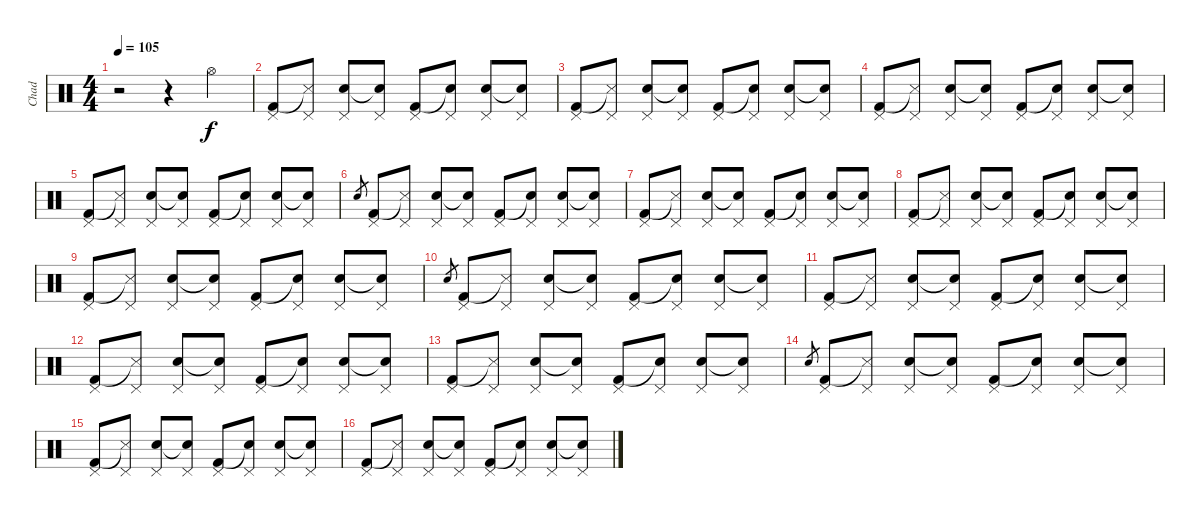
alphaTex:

\track ("Chad" "Chad") {instrument percussion}
\staff {score}
\articulation defaults
\ts (4 4)
\tempo 105
\clef neutral
\ks c
r.2{dy f} r.4 "Hi-Hat (open)".4 |
("Pedal Hi-Hat (hit)" "Kick (hit) 2").8 ("Pedal Hi-Hat (hit)" "Snare (side stick) 3"{t}).8 ("Pedal Hi-Hat (hit)" "Electric Snare (hit)").8 ("Pedal Hi-Hat (hit)" "Snare (hit)"{t}).8 ("Pedal Hi-Hat (hit)" "Kick (hit) 2").8 ("Pedal Hi-Hat (hit)" "Snare (hit)"{t}).8 ("Pedal Hi-Hat (hit)" "Electric Snare (hit)").8 ("Pedal Hi-Hat (hit)" "Snare (hit)"{t}).8 |
("Pedal Hi-Hat (hit)" "Kick (hit) 2").8 ("Pedal Hi-Hat (hit)" "Snare (side stick) 3"{t}).8 ("Pedal Hi-Hat (hit)" "Electric Snare (hit)").8 ("Pedal Hi-Hat (hit)" "Snare (hit)"{t}).8 ("Pedal Hi-Hat (hit)" "Kick (hit) 2").8 ("Pedal Hi-Hat (hit)" "Snare (hit)"{t}).8 ("Pedal Hi-Hat (hit)" "Electric Snare (hit)").8 ("Pedal Hi-Hat (hit)" "Snare (hit)"{t}).8 |
("Pedal Hi-Hat (hit)" "Kick (hit) 2").8 ("Pedal Hi-Hat (hit)" "Snare (side stick) 3"{t}).8 ("Pedal Hi-Hat (hit)" "Electric Snare (hit)").8 ("Pedal Hi-Hat (hit)" "Snare (hit)"{t}).8 ("Pedal Hi-Hat (hit)" "Kick (hit) 2").8 ("Pedal Hi-Hat (hit)" "Snare (hit)"{t}).8 ("Pedal Hi-Hat (hit)" "Electric Snare (hit)").8 ("Pedal Hi-Hat (hit)" "Snare (hit)"{t}).8 |
("Pedal Hi-Hat (hit)" "Kick (hit) 2").8 ("Pedal Hi-Hat (hit)" "Snare (side stick) 3"{t}).8 ("Pedal Hi-Hat (hit)" "Electric Snare (hit)").8 ("Pedal Hi-Hat (hit)" "Snare (hit)"{t}).8 ("Pedal Hi-Hat (hit)" "Kick (hit) 2").8 ("Pedal Hi-Hat (hit)" "Snare (hit)"{t}).8 ("Pedal Hi-Hat (hit)" "Electric Snare (hit)").8 ("Pedal Hi-Hat (hit)" "Snare (hit)"{t}).8 |
"Electric Snare (hit)".8{gr} ("Pedal Hi-Hat (hit)" "Kick (hit) 2").8 ("Pedal Hi-Hat (hit)" "Snare (side stick) 3"{t}).8 ("Pedal Hi-Hat (hit)" "Electric Snare (hit)").8 ("Pedal Hi-Hat (hit)" "Snare (hit)"{t}).8 ("Pedal Hi-Hat (hit)" "Kick (hit) 2").8 ("Pedal Hi-Hat (hit)" "Snare (hit)"{t}).8 ("Pedal Hi-Hat (hit)" "Electric Snare (hit)").8 ("Pedal Hi-Hat (hit)" "Snare (hit)"{t}).8 |
("Pedal Hi-Hat (hit)" "Kick (hit) 2").8 ("Pedal Hi-Hat (hit)" "Snare (side stick) 3"{t}).8 ("Pedal Hi-Hat (hit)" "Electric Snare (hit)").8 ("Pedal Hi-Hat (hit)" "Snare (hit)"{t}).8 ("Pedal Hi-Hat (hit)" "Kick (hit) 2").8 ("Pedal Hi-Hat (hit)" "Snare (hit)"{t}).8 ("Pedal Hi-Hat (hit)" "Electric Snare (hit)").8 ("Pedal Hi-Hat (hit)" "Snare (hit)"{t}).8 |
("Pedal Hi-Hat (hit)" "Kick (hit) 2").8 ("Pedal Hi-Hat (hit)" "Snare (side stick) 3"{t}).8 ("Pedal Hi-Hat (hit)" "Electric Snare (hit)").8 ("Pedal Hi-Hat (hit)" "Snare (hit)"{t}).8 ("Pedal Hi-Hat (hit)" "Kick (hit) 2").8 ("Pedal Hi-Hat (hit)" "Snare (hit)"{t}).8 ("Pedal Hi-Hat (hit)" "Electric Snare (hit)").8 ("Pedal Hi-Hat (hit)" "Snare (hit)"{t}).8 |
("Pedal Hi-Hat (hit)" "Kick (hit) 2").8 ("Pedal Hi-Hat (hit)" "Snare (side stick) 3"{t}).8 ("Pedal Hi-Hat (hit)" "Electric Snare (hit)").8 ("Pedal Hi-Hat (hit)" "Snare (hit)"{t}).8 ("Pedal Hi-Hat (hit)" "Kick (hit) 2").8 ("Pedal Hi-Hat (hit)" "Snare (hit)"{t}).8 ("Pedal Hi-Hat (hit)" "Electric Snare (hit)").8 ("Pedal Hi-Hat (hit)" "Snare (hit)"{t}).8 |
"Electric Snare (hit)".8{gr} ("Pedal Hi-Hat (hit)" "Kick (hit) 2").8 ("Pedal Hi-Hat (hit)" "Snare (side stick) 3"{t}).8 ("Pedal Hi-Hat (hit)" "Electric Snare (hit)").8 ("Pedal Hi-Hat (hit)" "Snare (hit)"{t}).8 ("Pedal Hi-Hat (hit)" "Kick (hit) 2").8 ("Pedal Hi-Hat (hit)" "Snare (hit)"{t}).8 ("Pedal Hi-Hat (hit)" "Electric Snare (hit)").8 ("Pedal Hi-Hat (hit)" "Snare (hit)"{t}).8 |
("Pedal Hi-Hat (hit)" "Kick (hit) 2").8 ("Pedal Hi-Hat (hit)" "Snare (side stick) 3"{t}).8 ("Pedal Hi-Hat (hit)" "Electric Snare (hit)").8 ("Pedal Hi-Hat (hit)" "Snare (hit)"{t}).8 ("Pedal Hi-Hat (hit)" "Kick (hit) 2").8 ("Pedal Hi-Hat (hit)" "Snare (hit)"{t}).8 ("Pedal Hi-Hat (hit)" "Electric Snare (hit)").8 ("Pedal Hi-Hat (hit)" "Snare (hit)"{t}).8 |
("Pedal Hi-Hat (hit)" "Kick (hit) 2").8 ("Pedal Hi-Hat (hit)" "Snare (side stick) 3"{t}).8 ("Pedal Hi-Hat (hit)" "Electric Snare (hit)").8 ("Pedal Hi-Hat (hit)" "Snare (hit)"{t}).8 ("Pedal Hi-Hat (hit)" "Kick (hit) 2").8 ("Pedal Hi-Hat (hit)" "Snare (hit)"{t}).8 ("Pedal Hi-Hat (hit)" "Electric Snare (hit)").8 ("Pedal Hi-Hat (hit)" "Snare (hit)"{t}).8 |
("Pedal Hi-Hat (hit)" "Kick (hit) 2").8 ("Pedal Hi-Hat (hit)" "Snare (side stick) 3"{t}).8 ("Pedal Hi-Hat (hit)" "Electric Snare (hit)").8 ("Pedal Hi-Hat (hit)" "Snare (hit)"{t}).8 ("Pedal Hi-Hat (hit)" "Kick (hit) 2").8 ("Pedal Hi-Hat (hit)" "Snare (hit)"{t}).8 ("Pedal Hi-Hat (hit)" "Electric Snare (hit)").8 ("Pedal Hi-Hat (hit)" "Snare (hit)"{t}).8 |
"Electric Snare (hit)".8{gr} ("Pedal Hi-Hat (hit)" "Kick (hit) 2").8 ("Pedal Hi-Hat (hit)" "Snare (side stick) 3"{t}).8 ("Pedal Hi-Hat (hit)" "Electric Snare (hit)").8 ("Pedal Hi-Hat (hit)" "Snare (hit)"{t}).8 ("Pedal Hi-Hat (hit)" "Kick (hit) 2").8 ("Pedal Hi-Hat (hit)" "Snare (hit)"{t}).8 ("Pedal Hi-Hat (hit)" "Electric Snare (hit)").8 ("Pedal Hi-Hat (hit)" "Snare (hit)"{t}).8 |
("Pedal Hi-Hat (hit)" "Kick (hit) 2").8 ("Pedal Hi-Hat (hit)" "Snare (side stick) 3"{t}).8 ("Pedal Hi-Hat (hit)" "Electric Snare (hit)").8 ("Pedal Hi-Hat (hit)" "Snare (hit)"{t}).8 ("Pedal Hi-Hat (hit)" "Kick (hit) 2").8 ("Pedal Hi-Hat (hit)" "Snare (hit)"{t}).8 ("Pedal Hi-Hat (hit)" "Electric Snare (hit)").8 ("Pedal Hi-Hat (hit)" "Snare (hit)"{t}).8 |
("Pedal Hi-Hat (hit)" "Kick (hit) 2").8 ("Pedal Hi-Hat (hit)" "Snare (side stick) 3"{t}).8 ("Pedal Hi-Hat (hit)" "Electric Snare (hit)").8 ("Pedal Hi-Hat (hit)" "Snare (hit)"{t}).8 ("Pedal Hi-Hat (hit)" "Kick (hit) 2").8 ("Pedal Hi-Hat (hit)" "Snare (hit)"{t}).8 ("Pedal Hi-Hat (hit)" "Electric Snare (hit)").8 ("Pedal Hi-Hat (hit)" "Snare (hit)"{t}).8
